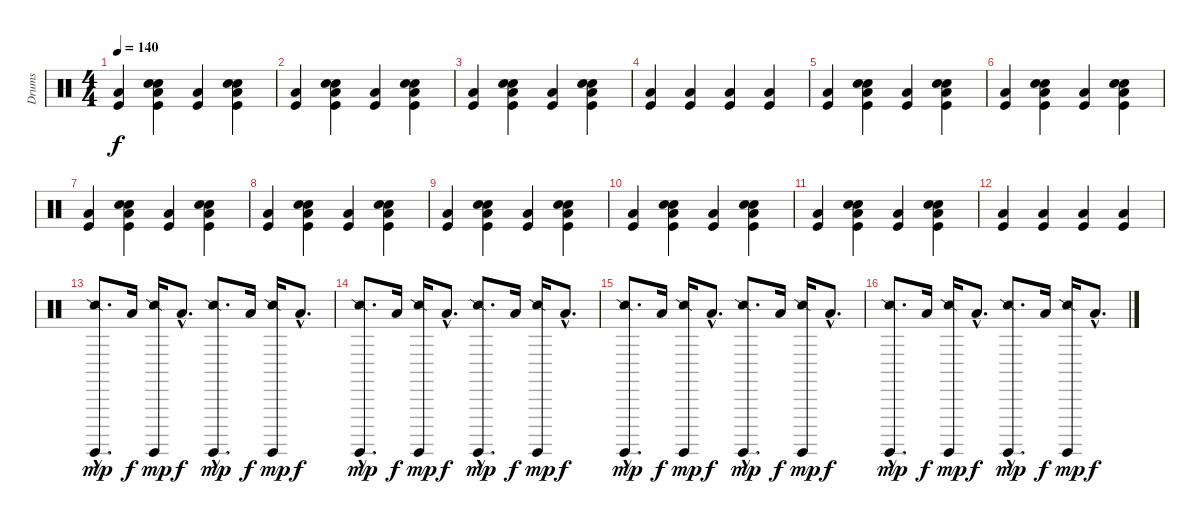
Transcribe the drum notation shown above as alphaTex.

\track ("Drums" "Drums") {instrument percussion}
\staff {score}
\articulation defaults
\ts (4 4)
\tempo 140
\clef neutral
\ks c
("Low Floor Tom (hit)" "Kick (hit)").4{dy f} ("Hand Clap (hit)" "Snare (hit) 2" "Low Floor Tom (hit)" "Kick (hit)").4 ("Low Floor Tom (hit)" "Kick (hit)").4 ("Hand Clap (hit)" "Snare (hit) 2" "Low Floor Tom (hit)" "Kick (hit)").4 |
("Low Floor Tom (hit)" "Kick (hit)").4 ("Hand Clap (hit)" "Snare (hit) 2" "Low Floor Tom (hit)" "Kick (hit)").4 ("Low Floor Tom (hit)" "Kick (hit)").4 ("Hand Clap (hit)" "Snare (hit) 2" "Low Floor Tom (hit)" "Kick (hit)").4 |
("Low Floor Tom (hit)" "Kick (hit)").4 ("Hand Clap (hit)" "Snare (hit) 2" "Low Floor Tom (hit)" "Kick (hit)").4 ("Low Floor Tom (hit)" "Kick (hit)").4 ("Hand Clap (hit)" "Snare (hit) 2" "Low Floor Tom (hit)" "Kick (hit)").4 |
("Low Floor Tom (hit)" "Kick (hit)").4 ("Low Floor Tom (hit)" "Kick (hit)").4 ("Low Floor Tom (hit)" "Kick (hit)").4 ("Low Floor Tom (hit)" "Kick (hit)").4 |
("Low Floor Tom (hit)" "Kick (hit)").4 ("Hand Clap (hit)" "Snare (hit) 2" "Low Floor Tom (hit)" "Kick (hit)").4 ("Low Floor Tom (hit)" "Kick (hit)").4 ("Hand Clap (hit)" "Snare (hit) 2" "Low Floor Tom (hit)" "Kick (hit)").4 |
("Low Floor Tom (hit)" "Kick (hit)").4 ("Hand Clap (hit)" "Snare (hit) 2" "Low Floor Tom (hit)" "Kick (hit)").4 ("Low Floor Tom (hit)" "Kick (hit)").4 ("Hand Clap (hit)" "Snare (hit) 2" "Low Floor Tom (hit)" "Kick (hit)").4 |
("Low Floor Tom (hit)" "Kick (hit)").4 ("Hand Clap (hit)" "Snare (hit) 2" "Low Floor Tom (hit)" "Kick (hit)").4 ("Low Floor Tom (hit)" "Kick (hit)").4 ("Hand Clap (hit)" "Snare (hit) 2" "Low Floor Tom (hit)" "Kick (hit)").4 |
("Low Floor Tom (hit)" "Kick (hit)").4 ("Hand Clap (hit)" "Snare (hit) 2" "Low Floor Tom (hit)" "Kick (hit)").4 ("Low Floor Tom (hit)" "Kick (hit)").4 ("Hand Clap (hit)" "Snare (hit) 2" "Low Floor Tom (hit)" "Kick (hit)").4 |
("Low Floor Tom (hit)" "Kick (hit)").4 ("Hand Clap (hit)" "Snare (hit) 2" "Low Floor Tom (hit)" "Kick (hit)").4 ("Low Floor Tom (hit)" "Kick (hit)").4 ("Hand Clap (hit)" "Snare (hit) 2" "Low Floor Tom (hit)" "Kick (hit)").4 |
("Low Floor Tom (hit)" "Kick (hit)").4 ("Hand Clap (hit)" "Snare (hit) 2" "Low Floor Tom (hit)" "Kick (hit)").4 ("Low Floor Tom (hit)" "Kick (hit)").4 ("Hand Clap (hit)" "Snare (hit) 2" "Low Floor Tom (hit)" "Kick (hit)").4 |
("Low Floor Tom (hit)" "Kick (hit)").4 ("Hand Clap (hit)" "Snare (hit) 2" "Low Floor Tom (hit)" "Kick (hit)").4 ("Low Floor Tom (hit)" "Kick (hit)").4 ("Hand Clap (hit)" "Snare (hit) 2" "Low Floor Tom (hit)" "Kick (hit)").4 |
("Low Floor Tom (hit)" "Kick (hit)").4 ("Low Floor Tom (hit)" "Kick (hit)").4 ("Low Floor Tom (hit)" "Kick (hit)").4 ("Low Floor Tom (hit)" "Kick (hit)").4 |
("Surdo (hit)"{hac} "Snare (side stick) 2"{hac}).8{d dy mp} "Low Floor Tom (hit)".16{dy f} ("Surdo (hit)" "Snare (side stick) 2").16{dy mp} "Low Floor Tom (hit)"{hac}.8{d dy f} ("Surdo (hit)"{hac} "Snare (side stick) 2"{hac}).8{d dy mp} "Low Floor Tom (hit)".16{dy f} ("Surdo (hit)" "Snare (side stick) 2").16{dy mp} "Low Floor Tom (hit)"{hac}.8{d dy f} |
("Surdo (hit)"{hac} "Snare (side stick) 2"{hac}).8{d dy mp} "Low Floor Tom (hit)".16{dy f} ("Surdo (hit)" "Snare (side stick) 2").16{dy mp} "Low Floor Tom (hit)"{hac}.8{d dy f} ("Surdo (hit)"{hac} "Snare (side stick) 2"{hac}).8{d dy mp} "Low Floor Tom (hit)".16{dy f} ("Surdo (hit)" "Snare (side stick) 2").16{dy mp} "Low Floor Tom (hit)"{hac}.8{d dy f} |
("Surdo (hit)"{hac} "Snare (side stick) 2"{hac}).8{d dy mp} "Low Floor Tom (hit)".16{dy f} ("Surdo (hit)" "Snare (side stick) 2").16{dy mp} "Low Floor Tom (hit)"{hac}.8{d dy f} ("Surdo (hit)"{hac} "Snare (side stick) 2"{hac}).8{d dy mp} "Low Floor Tom (hit)".16{dy f} ("Surdo (hit)" "Snare (side stick) 2").16{dy mp} "Low Floor Tom (hit)"{hac}.8{d dy f} |
("Surdo (hit)"{hac} "Snare (side stick) 2"{hac}).8{d dy mp} "Low Floor Tom (hit)".16{dy f} ("Surdo (hit)" "Snare (side stick) 2").16{dy mp} "Low Floor Tom (hit)"{hac}.8{d dy f} ("Surdo (hit)"{hac} "Snare (side stick) 2"{hac}).8{d dy mp} "Low Floor Tom (hit)".16{dy f} ("Surdo (hit)" "Snare (side stick) 2").16{dy mp} "Low Floor Tom (hit)"{hac}.8{d dy f}
